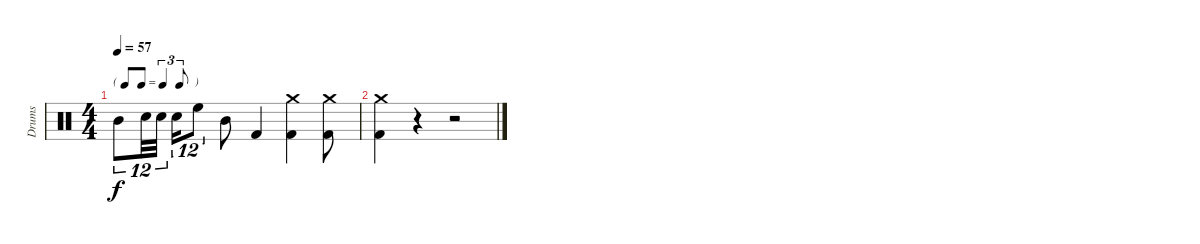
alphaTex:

\track ("Drums" "Drums") {instrument percussion}
\staff {score}
\articulation defaults
\ts (4 4)
\tf triplet8th
\tempo 57
\clef neutral
\ks c "Mid Tom (hit)".8{tu (12 8) dy f} "Snare (hit) 2".32{tu (12 8)} "Snare (hit) 2".32{tu (12 8)} "Snare (hit) 2".16{tu (12 8)} "High Floor Tom (hit)".8{tu (12 8)} "Mid Tom (hit)".8 "Kick (hit) 2".4
("Crash medium (hit)" "Kick (hit) 2").4 ("Crash medium (hit)" "Kick (hit) 2").8 |
("Crash medium (hit)" "Kick (hit) 2").4 r.4 r.2
